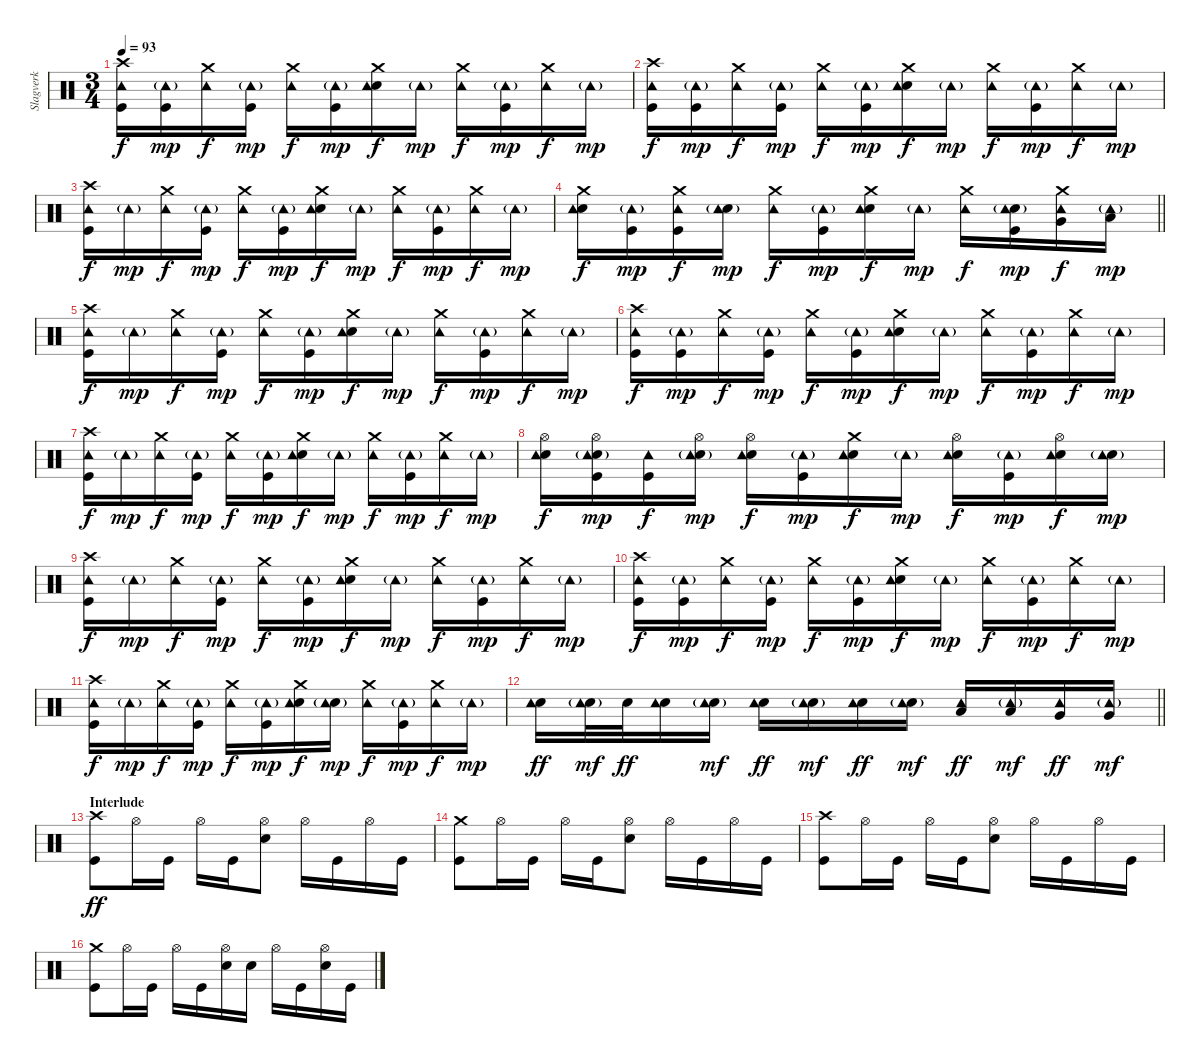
\track ("Slagverk" "Slagverk") {instrument percussion}
\staff {score}
\articulation defaults
\ts (3 4)
\tempo 93
\clef neutral
\ks c
("Crash high (hit)" "Tambourine (hit)" "Kick (hit)").16{dy f} ("Kick (hit)" "Tambourine (hit)"{g}).16{dy mp} ("Crash medium (hit)" "Tambourine (hit)").16{dy f} ("Tambourine (hit)"{g} "Kick (hit)").16{dy mp} ("Crash medium (hit)" "Tambourine (hit)").16{dy f} ("Kick (hit)" "Tambourine (hit)"{g}).16{dy mp} ("Crash medium (hit)" "Electric Snare (hit)" "Tambourine (hit)").16{dy f} "Tambourine (hit)"{g}.16{dy mp} ("Crash medium (hit)" "Tambourine (hit)").16{dy f} ("Kick (hit)" "Tambourine (hit)"{g}).16{dy mp} ("Crash medium (hit)" "Tambourine (hit)").16{dy f} "Tambourine (hit)"{g}.16{dy mp} |
("Crash high (hit)" "Kick (hit)" "Tambourine (hit)").16{dy f} ("Kick (hit)" "Tambourine (hit)"{g}).16{dy mp} ("Crash medium (hit)" "Tambourine (hit)").16{dy f} ("Kick (hit)" "Tambourine (hit)"{g}).16{dy mp} ("Crash medium (hit)" "Tambourine (hit)").16{dy f} ("Kick (hit)" "Tambourine (hit)"{g}).16{dy mp} ("Crash medium (hit)" "Electric Snare (hit)" "Tambourine (hit)").16{dy f} "Tambourine (hit)"{g}.16{dy mp} ("Crash medium (hit)" "Tambourine (hit)").16{dy f} ("Kick (hit)" "Tambourine (hit)"{g}).16{dy mp} ("Crash medium (hit)" "Tambourine (hit)").16{dy f} "Tambourine (hit)"{g}.16{dy mp} |
("Crash high (hit)" "Kick (hit)" "Tambourine (hit)").16{dy f} "Tambourine (hit)"{g}.16{dy mp} ("Crash medium (hit)" "Tambourine (hit)").16{dy f} ("Kick (hit)" "Tambourine (hit)"{g}).16{dy mp} ("Crash medium (hit)" "Tambourine (hit)").16{dy f} ("Kick (hit)" "Tambourine (hit)"{g}).16{dy mp} ("Crash medium (hit)" "Electric Snare (hit)" "Tambourine (hit)").16{dy f} "Tambourine (hit)"{g}.16{dy mp} ("Crash medium (hit)" "Tambourine (hit)").16{dy f} ("Kick (hit)" "Tambourine (hit)"{g}).16{dy mp} ("Crash medium (hit)" "Tambourine (hit)").16{dy f} "Tambourine (hit)"{g}.16{dy mp} |
\barLineRight lightlight
("Crash medium (hit)" "Electric Snare (hit)" "Tambourine (hit)").16{dy f} ("Kick (hit)" "Tambourine (hit)"{g}).16{dy mp} ("Crash medium (hit)" "Kick (hit)" "Tambourine (hit)").16{dy f} ("Electric Snare (hit)" "Tambourine (hit)"{g}).16{dy mp} ("Crash medium (hit)" "Tambourine (hit)").16{dy f} ("Kick (hit)" "Tambourine (hit)"{g}).16{dy mp} ("Crash medium (hit)" "Electric Snare (hit)" "Tambourine (hit)").16{dy f} "Tambourine (hit)"{g}.16{dy mp} ("Crash medium (hit)" "Tambourine (hit)").16{dy f} ("Kick (hit)" "Electric Snare (hit)" "Tambourine (hit)"{g}).16{dy mp} ("Crash medium (hit)" "Very Low Tom (hit)" "Tambourine (hit)").16{dy f} ("Low Floor Tom (hit)" "Tambourine (hit)"{g}).16{dy mp} |
("Crash high (hit)" "Tambourine (hit)" "Kick (hit)").16{dy f} "Tambourine (hit)"{g}.16{dy mp} ("Crash medium (hit)" "Tambourine (hit)").16{dy f} ("Tambourine (hit)"{g} "Kick (hit)").16{dy mp} ("Crash medium (hit)" "Tambourine (hit)").16{dy f} ("Kick (hit)" "Tambourine (hit)"{g}).16{dy mp} ("Crash medium (hit)" "Electric Snare (hit)" "Tambourine (hit)").16{dy f} "Tambourine (hit)"{g}.16{dy mp} ("Crash medium (hit)" "Tambourine (hit)").16{dy f} ("Kick (hit)" "Tambourine (hit)"{g}).16{dy mp} ("Crash medium (hit)" "Tambourine (hit)").16{dy f} "Tambourine (hit)"{g}.16{dy mp} |
("Crash high (hit)" "Kick (hit)" "Tambourine (hit)").16{dy f} ("Kick (hit)" "Tambourine (hit)"{g}).16{dy mp} ("Crash medium (hit)" "Tambourine (hit)").16{dy f} ("Kick (hit)" "Tambourine (hit)"{g}).16{dy mp} ("Crash medium (hit)" "Tambourine (hit)").16{dy f} ("Kick (hit)" "Tambourine (hit)"{g}).16{dy mp} ("Crash medium (hit)" "Electric Snare (hit)" "Tambourine (hit)").16{dy f} "Tambourine (hit)"{g}.16{dy mp} ("Crash medium (hit)" "Tambourine (hit)").16{dy f} ("Kick (hit)" "Tambourine (hit)"{g}).16{dy mp} ("Crash medium (hit)" "Tambourine (hit)").16{dy f} "Tambourine (hit)"{g}.16{dy mp} |
("Crash high (hit)" "Kick (hit)" "Tambourine (hit)").16{dy f} "Tambourine (hit)"{g}.16{dy mp} ("Crash medium (hit)" "Tambourine (hit)").16{dy f} ("Kick (hit)" "Tambourine (hit)"{g}).16{dy mp} ("Crash medium (hit)" "Tambourine (hit)").16{dy f} ("Kick (hit)" "Tambourine (hit)"{g}).16{dy mp} ("Crash medium (hit)" "Electric Snare (hit)" "Tambourine (hit)").16{dy f} "Tambourine (hit)"{g}.16{dy mp} ("Crash medium (hit)" "Tambourine (hit)").16{dy f} ("Kick (hit)" "Tambourine (hit)"{g}).16{dy mp} ("Crash medium (hit)" "Tambourine (hit)").16{dy f} "Tambourine (hit)"{g}.16{dy mp} |
("Hi-Hat (open)" "Electric Snare (hit)" "Tambourine (hit)").16{dy f} ("Hi-Hat (open)" "Electric Snare (hit)" "Kick (hit)" "Tambourine (hit)"{g}).16{dy mp} ("Kick (hit)" "Tambourine (hit)").16{dy f} ("Hi-Hat (open)" "Electric Snare (hit)" "Tambourine (hit)"{g}).16{dy mp} ("Hi-Hat (open)" "Electric Snare (hit)" "Tambourine (hit)").16{dy f} ("Kick (hit)" "Tambourine (hit)"{g}).16{dy mp} ("Electric Snare (hit)" "Crash medium (hit)" "Tambourine (hit)").16{dy f} "Tambourine (hit)"{g}.16{dy mp} ("Electric Snare (hit)" "Hi-Hat (open)" "Tambourine (hit)").16{dy f} ("Kick (hit)" "Tambourine (hit)"{g}).16{dy mp} ("Electric Snare (hit)" "Hi-Hat (open)" "Tambourine (hit)").16{dy f} ("Electric Snare (hit)" "Tambourine (hit)"{g}).16{dy mp} |
("Crash high (hit)" "Tambourine (hit)" "Kick (hit)").16{dy f} "Tambourine (hit)"{g}.16{dy mp} ("Crash medium (hit)" "Tambourine (hit)").16{dy f} ("Tambourine (hit)"{g} "Kick (hit)").16{dy mp} ("Crash medium (hit)" "Tambourine (hit)").16{dy f} ("Kick (hit)" "Tambourine (hit)"{g}).16{dy mp} ("Crash medium (hit)" "Electric Snare (hit)" "Tambourine (hit)").16{dy f} "Tambourine (hit)"{g}.16{dy mp} ("Crash medium (hit)" "Tambourine (hit)").16{dy f} ("Kick (hit)" "Tambourine (hit)"{g}).16{dy mp} ("Crash medium (hit)" "Tambourine (hit)").16{dy f} "Tambourine (hit)"{g}.16{dy mp} |
("Crash high (hit)" "Kick (hit)" "Tambourine (hit)").16{dy f} ("Kick (hit)" "Tambourine (hit)"{g}).16{dy mp} ("Crash medium (hit)" "Tambourine (hit)").16{dy f} ("Kick (hit)" "Tambourine (hit)"{g}).16{dy mp} ("Crash medium (hit)" "Tambourine (hit)").16{dy f} ("Kick (hit)" "Tambourine (hit)"{g}).16{dy mp} ("Crash medium (hit)" "Electric Snare (hit)" "Tambourine (hit)").16{dy f} "Tambourine (hit)"{g}.16{dy mp} ("Crash medium (hit)" "Tambourine (hit)").16{dy f} ("Kick (hit)" "Tambourine (hit)"{g}).16{dy mp} ("Crash medium (hit)" "Tambourine (hit)").16{dy f} "Tambourine (hit)"{g}.16{dy mp} |
("Crash high (hit)" "Kick (hit)" "Tambourine (hit)").16{dy f} "Tambourine (hit)"{g}.16{dy mp} ("Crash medium (hit)" "Tambourine (hit)").16{dy f} ("Kick (hit)" "Tambourine (hit)"{g}).16{dy mp} ("Crash medium (hit)" "Tambourine (hit)").16{dy f} ("Kick (hit)" "Tambourine (hit)"{g}).16{dy mp} ("Crash medium (hit)" "Electric Snare (hit)" "Tambourine (hit)").16{dy f} ("Electric Snare (hit)" "Tambourine (hit)"{g}).16{dy mp} ("Crash medium (hit)" "Tambourine (hit)").16{dy f} ("Kick (hit)" "Tambourine (hit)"{g}).16{dy mp} ("Crash medium (hit)" "Tambourine (hit)").16{dy f} "Tambourine (hit)"{g}.16{dy mp} |
\barLineRight lightlight
("Electric Snare (hit)" "Tambourine (hit)").16{dy ff} ("Electric Snare (hit)" "Tambourine (hit)"{g}).32{dy mf} "Electric Snare (hit)".32{dy ff} ("Electric Snare (hit)" "Tambourine (hit)").16 ("Electric Snare (hit)" "Tambourine (hit)"{g}).16{dy mf} ("Electric Snare (hit)" "Tambourine (hit)").16{dy ff} ("Electric Snare (hit)" "Tambourine (hit)"{g}).16{dy mf} ("Electric Snare (hit)" "Tambourine (hit)").16{dy ff} ("Electric Snare (hit)" "Tambourine (hit)"{g}).16{dy mf} ("Low Tom (hit)" "Tambourine (hit)").16{dy ff} ("Low Tom (hit)" "Tambourine (hit)"{g}).16{dy mf} ("Very Low Tom (hit)" "Tambourine (hit)").16{dy ff} ("Very Low Tom (hit)" "Tambourine (hit)"{g}).16{dy mf} |
\section ("" "Interlude")
("Crash high (hit)" "Kick (hit)").8{dy ff} "Hi-Hat (open)".16 "Kick (hit)".16 "Hi-Hat (open)".16 "Kick (hit)".16 ("Hi-Hat (open)" "Electric Snare (hit)").8 "Hi-Hat (open)".16 "Kick (hit)".16 "Hi-Hat (open)".16 "Kick (hit)".16 |
("Crash medium (hit)" "Kick (hit)").8 "Hi-Hat (open)".16 "Kick (hit)".16 "Hi-Hat (open)".16 "Kick (hit)".16 ("Hi-Hat (open)" "Electric Snare (hit)").8 "Hi-Hat (open)".16 "Kick (hit)".16 "Hi-Hat (open)".16 "Kick (hit)".16 |
("Crash high (hit)" "Kick (hit)").8 "Hi-Hat (open)".16 "Kick (hit)".16 "Hi-Hat (open)".16 "Kick (hit)".16 ("Hi-Hat (open)" "Electric Snare (hit)").8 "Hi-Hat (open)".16 "Kick (hit)".16 "Hi-Hat (open)".16 "Kick (hit)".16 |
("Crash medium (hit)" "Kick (hit)").8 "Hi-Hat (open)".16 "Kick (hit)".16 "Hi-Hat (open)".16 "Kick (hit)".16 ("Hi-Hat (open)" "Electric Snare (hit)").16 "Electric Snare (hit)".16 "Hi-Hat (open)".16 "Kick (hit)".16 ("Hi-Hat (open)" "Electric Snare (hit)").16 "Kick (hit)".16
